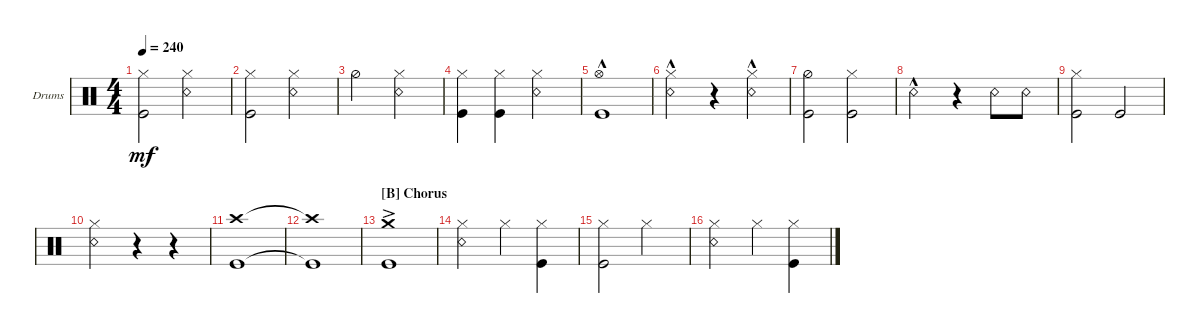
\defaultSystemsLayout 4
\bracketExtendMode groupsimilarinstruments
\firstSystemTrackNameOrientation horizontal
\otherSystemsTrackNameOrientation horizontal
\track ("Drumkit" "Drums") {instrument percussion}
\staff {score}
\articulation defaults
\ts (4 4)
\tempo 240
\clef neutral
\ks c
("Kick (hit)" "Hi-Hat (closed)").2{dy mf} ("Snare (rim shot)" "Hi-Hat (closed)").2 |
("Kick (hit)" "Hi-Hat (closed)").2 ("Snare (rim shot)" "Hi-Hat (closed)").2 |
"Hi-Hat (half)".2 ("Snare (rim shot)" "Hi-Hat (closed)").2 |
("Kick (hit)" "Hi-Hat (closed)").4 ("Kick (hit)" "Hi-Hat (closed)").4 ("Snare (rim shot)" "Hi-Hat (closed)").2 |
("Kick (hit)"{hac} "Hi-Hat (open)"{hac}).1 |
("Snare (rim shot)"{hac} "Hi-Hat (closed)").2 r.4 ("Snare (rim shot)"{hac} "Hi-Hat (closed)").4 |
("Kick (hit)" "Hi-Hat (half)").2 ("Kick (hit)" "Hi-Hat (closed)").2 |
"Snare (rim shot)"{hac}.2 r.4 "Snare (rim shot)".8 "Snare (rim shot)".8 |
("Kick (hit)" "Hi-Hat (closed)").2 "Kick (hit)".2 |
("Snare (rim shot)" "Hi-Hat (closed)").2 r.4 r.4 |
("Crash high (hit)" "Kick (hit)").1 |
("Crash high (hit)"{t} "Kick (hit)"{t}).1 |
\section ("B" "Chorus")
("Crash medium (hit)"{ac} "Kick (hit)"{ac}).1 |
("Snare (rim shot)" "Hi-Hat (closed)").2 "Hi-Hat (closed)".4 ("Kick (hit)" "Hi-Hat (closed)").4 |
("Kick (hit)" "Hi-Hat (closed)").2 "Hi-Hat (closed)".2 |
("Snare (rim shot)" "Hi-Hat (closed)").2 "Hi-Hat (closed)".4 ("Kick (hit)" "Hi-Hat (closed)").4
